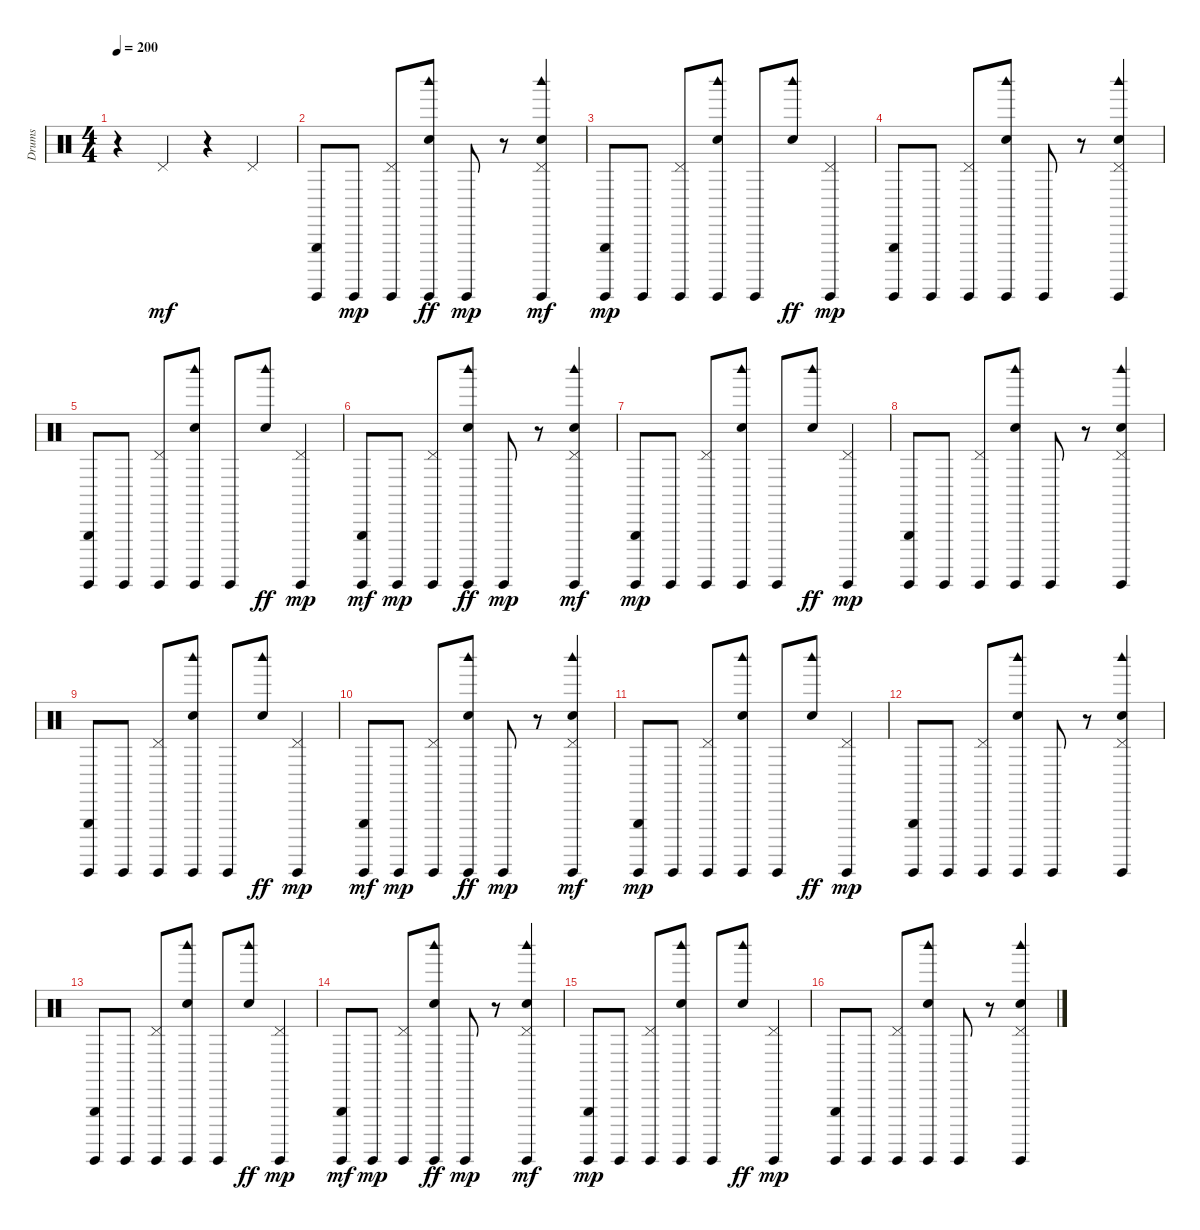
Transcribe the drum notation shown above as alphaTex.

\track ("Drums" "Drums") {instrument percussion}
\staff {score}
\articulation defaults
\ts (4 4)
\tempo 200
\clef neutral
\ks c
r.4{dy mf} "Pedal Hi-Hat (hit)".4 r.4 "Pedal Hi-Hat (hit)".4 |
("Guiro (hit)" "Triangle (hit)").8 "Guiro (hit)".8{dy mp} ("Pedal Hi-Hat (hit)" "Guiro (hit)").8 ("Guiro (hit)" "Woodblock high (hit)" "Hand Clap (hit)").8{dy ff} "Guiro (hit)".8{dy mp} r.8 ("Hand Clap (hit)" "Guiro (hit)" "Pedal Hi-Hat (hit)" "Woodblock high (hit)").4{dy mf} |
("Triangle (hit)" "Guiro (hit)").8{dy mp} "Guiro (hit)".8 ("Pedal Hi-Hat (hit)" "Guiro (hit)").8 ("Hand Clap (hit)" "Woodblock high (hit)" "Guiro (hit)").8 "Guiro (hit)".8 ("Hand Clap (hit)" "Woodblock high (hit)").8{dy ff} ("Pedal Hi-Hat (hit)" "Guiro (hit)").4{dy mp} |
("Triangle (hit)" "Guiro (hit)").8 "Guiro (hit)".8 ("Pedal Hi-Hat (hit)" "Guiro (hit)").8 ("Hand Clap (hit)" "Woodblock high (hit)" "Guiro (hit)").8 "Guiro (hit)".8 r.8 ("Hand Clap (hit)" "Woodblock high (hit)" "Pedal Hi-Hat (hit)" "Guiro (hit)").4 |
("Triangle (hit)" "Guiro (hit)").8 "Guiro (hit)".8 ("Pedal Hi-Hat (hit)" "Guiro (hit)").8 ("Hand Clap (hit)" "Woodblock high (hit)" "Guiro (hit)").8 "Guiro (hit)".8 ("Hand Clap (hit)" "Woodblock high (hit)").8{dy ff} ("Pedal Hi-Hat (hit)" "Guiro (hit)").4{dy mp} |
("Guiro (hit)" "Triangle (hit)").8{dy mf} "Guiro (hit)".8{dy mp} ("Pedal Hi-Hat (hit)" "Guiro (hit)").8 ("Guiro (hit)" "Woodblock high (hit)" "Hand Clap (hit)").8{dy ff} "Guiro (hit)".8{dy mp} r.8 ("Hand Clap (hit)" "Guiro (hit)" "Pedal Hi-Hat (hit)" "Woodblock high (hit)").4{dy mf} |
("Triangle (hit)" "Guiro (hit)").8{dy mp} "Guiro (hit)".8 ("Pedal Hi-Hat (hit)" "Guiro (hit)").8 ("Hand Clap (hit)" "Woodblock high (hit)" "Guiro (hit)").8 "Guiro (hit)".8 ("Hand Clap (hit)" "Woodblock high (hit)").8{dy ff} ("Pedal Hi-Hat (hit)" "Guiro (hit)").4{dy mp} |
("Triangle (hit)" "Guiro (hit)").8 "Guiro (hit)".8 ("Pedal Hi-Hat (hit)" "Guiro (hit)").8 ("Hand Clap (hit)" "Woodblock high (hit)" "Guiro (hit)").8 "Guiro (hit)".8 r.8 ("Hand Clap (hit)" "Woodblock high (hit)" "Pedal Hi-Hat (hit)" "Guiro (hit)").4 |
("Triangle (hit)" "Guiro (hit)").8 "Guiro (hit)".8 ("Pedal Hi-Hat (hit)" "Guiro (hit)").8 ("Hand Clap (hit)" "Woodblock high (hit)" "Guiro (hit)").8 "Guiro (hit)".8 ("Hand Clap (hit)" "Woodblock high (hit)").8{dy ff} ("Pedal Hi-Hat (hit)" "Guiro (hit)").4{dy mp} |
("Guiro (hit)" "Triangle (hit)").8{dy mf} "Guiro (hit)".8{dy mp} ("Pedal Hi-Hat (hit)" "Guiro (hit)").8 ("Guiro (hit)" "Woodblock high (hit)" "Hand Clap (hit)").8{dy ff} "Guiro (hit)".8{dy mp} r.8 ("Hand Clap (hit)" "Guiro (hit)" "Pedal Hi-Hat (hit)" "Woodblock high (hit)").4{dy mf} |
("Triangle (hit)" "Guiro (hit)").8{dy mp} "Guiro (hit)".8 ("Pedal Hi-Hat (hit)" "Guiro (hit)").8 ("Hand Clap (hit)" "Woodblock high (hit)" "Guiro (hit)").8 "Guiro (hit)".8 ("Hand Clap (hit)" "Woodblock high (hit)").8{dy ff} ("Pedal Hi-Hat (hit)" "Guiro (hit)").4{dy mp} |
("Triangle (hit)" "Guiro (hit)").8 "Guiro (hit)".8 ("Pedal Hi-Hat (hit)" "Guiro (hit)").8 ("Hand Clap (hit)" "Woodblock high (hit)" "Guiro (hit)").8 "Guiro (hit)".8 r.8 ("Hand Clap (hit)" "Woodblock high (hit)" "Pedal Hi-Hat (hit)" "Guiro (hit)").4 |
("Triangle (hit)" "Guiro (hit)").8 "Guiro (hit)".8 ("Pedal Hi-Hat (hit)" "Guiro (hit)").8 ("Hand Clap (hit)" "Woodblock high (hit)" "Guiro (hit)").8 "Guiro (hit)".8 ("Hand Clap (hit)" "Woodblock high (hit)").8{dy ff} ("Pedal Hi-Hat (hit)" "Guiro (hit)").4{dy mp} |
("Guiro (hit)" "Triangle (hit)").8{dy mf} "Guiro (hit)".8{dy mp} ("Pedal Hi-Hat (hit)" "Guiro (hit)").8 ("Guiro (hit)" "Woodblock high (hit)" "Hand Clap (hit)").8{dy ff} "Guiro (hit)".8{dy mp} r.8 ("Hand Clap (hit)" "Guiro (hit)" "Pedal Hi-Hat (hit)" "Woodblock high (hit)").4{dy mf} |
("Triangle (hit)" "Guiro (hit)").8{dy mp} "Guiro (hit)".8 ("Pedal Hi-Hat (hit)" "Guiro (hit)").8 ("Hand Clap (hit)" "Woodblock high (hit)" "Guiro (hit)").8 "Guiro (hit)".8 ("Hand Clap (hit)" "Woodblock high (hit)").8{dy ff} ("Pedal Hi-Hat (hit)" "Guiro (hit)").4{dy mp} |
("Triangle (hit)" "Guiro (hit)").8 "Guiro (hit)".8 ("Pedal Hi-Hat (hit)" "Guiro (hit)").8 ("Hand Clap (hit)" "Woodblock high (hit)" "Guiro (hit)").8 "Guiro (hit)".8 r.8 ("Hand Clap (hit)" "Woodblock high (hit)" "Pedal Hi-Hat (hit)" "Guiro (hit)").4
